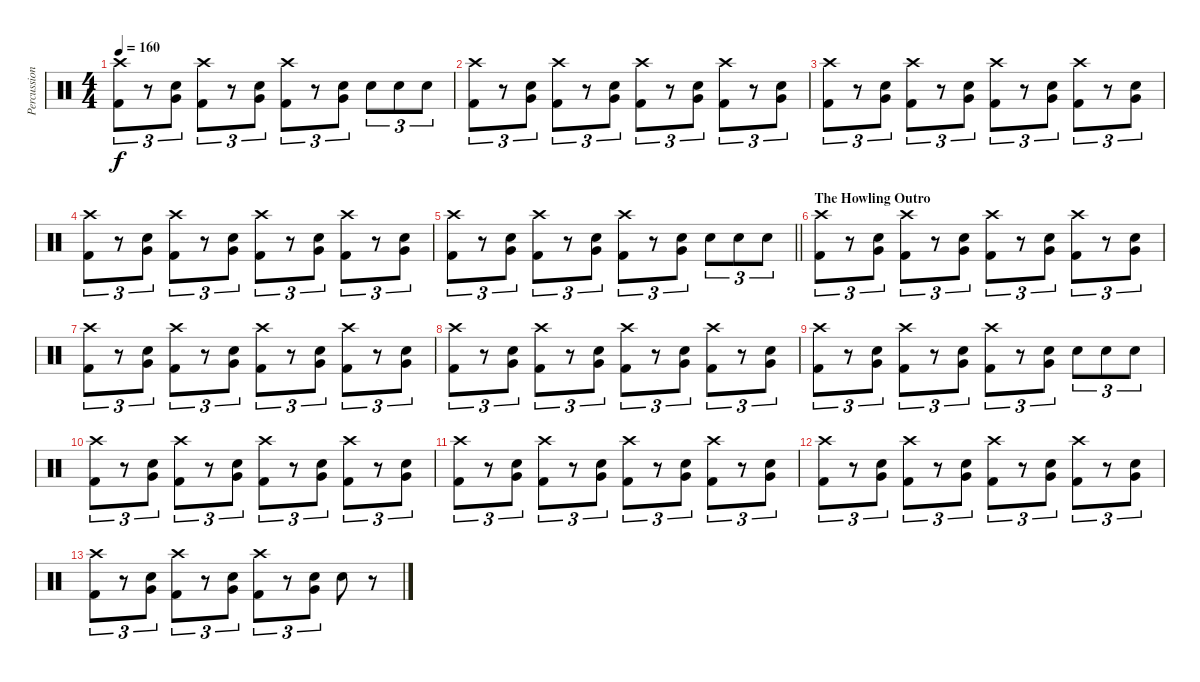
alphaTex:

\track ("Percussion" "Percussion") {instrument percussion}
\staff {score}
\articulation defaults
\ts (4 4)
\tempo 160
\clef neutral
\ks c
("Crash high (hit)" "Kick (hit) 2").8{tu (3 2) dy f} r.8{tu (3 2)} ("Snare (hit) 2" "Very Low Tom (hit)").8{tu (3 2)} ("Crash high (hit)" "Kick (hit) 2").8{tu (3 2)} r.8{tu (3 2)} ("Snare (hit) 2" "Very Low Tom (hit)").8{tu (3 2)} ("Crash high (hit)" "Kick (hit) 2").8{tu (3 2)} r.8{tu (3 2)} ("Snare (hit) 2" "Very Low Tom (hit)").8{tu (3 2)} "Snare (hit) 2".8{tu (3 2)} "Snare (hit) 2".8{tu (3 2)} "Snare (hit) 2".8{tu (3 2)} |
("Crash high (hit)" "Kick (hit) 2").8{tu (3 2)} r.8{tu (3 2)} ("Snare (hit) 2" "Very Low Tom (hit)").8{tu (3 2)} ("Crash high (hit)" "Kick (hit) 2").8{tu (3 2)} r.8{tu (3 2)} ("Snare (hit) 2" "Very Low Tom (hit)").8{tu (3 2)} ("Crash high (hit)" "Kick (hit) 2").8{tu (3 2)} r.8{tu (3 2)} ("Snare (hit) 2" "Very Low Tom (hit)").8{tu (3 2)} ("Crash high (hit)" "Kick (hit) 2").8{tu (3 2)} r.8{tu (3 2)} ("Snare (hit) 2" "Very Low Tom (hit)").8{tu (3 2)} |
("Crash high (hit)" "Kick (hit) 2").8{tu (3 2)} r.8{tu (3 2)} ("Snare (hit) 2" "Very Low Tom (hit)").8{tu (3 2)} ("Crash high (hit)" "Kick (hit) 2").8{tu (3 2)} r.8{tu (3 2)} ("Snare (hit) 2" "Very Low Tom (hit)").8{tu (3 2)} ("Crash high (hit)" "Kick (hit) 2").8{tu (3 2)} r.8{tu (3 2)} ("Snare (hit) 2" "Very Low Tom (hit)").8{tu (3 2)} ("Crash high (hit)" "Kick (hit) 2").8{tu (3 2)} r.8{tu (3 2)} ("Snare (hit) 2" "Very Low Tom (hit)").8{tu (3 2)} |
("Crash high (hit)" "Kick (hit) 2").8{tu (3 2)} r.8{tu (3 2)} ("Snare (hit) 2" "Very Low Tom (hit)").8{tu (3 2)} ("Crash high (hit)" "Kick (hit) 2").8{tu (3 2)} r.8{tu (3 2)} ("Snare (hit) 2" "Very Low Tom (hit)").8{tu (3 2)} ("Crash high (hit)" "Kick (hit) 2").8{tu (3 2)} r.8{tu (3 2)} ("Snare (hit) 2" "Very Low Tom (hit)").8{tu (3 2)} ("Crash high (hit)" "Kick (hit) 2").8{tu (3 2)} r.8{tu (3 2)} ("Snare (hit) 2" "Very Low Tom (hit)").8{tu (3 2)} |
\barLineRight lightlight
("Crash high (hit)" "Kick (hit) 2").8{tu (3 2)} r.8{tu (3 2)} ("Snare (hit) 2" "Very Low Tom (hit)").8{tu (3 2)} ("Crash high (hit)" "Kick (hit) 2").8{tu (3 2)} r.8{tu (3 2)} ("Snare (hit) 2" "Very Low Tom (hit)").8{tu (3 2)} ("Crash high (hit)" "Kick (hit) 2").8{tu (3 2)} r.8{tu (3 2)} ("Snare (hit) 2" "Very Low Tom (hit)").8{tu (3 2)} "Snare (hit) 2".8{tu (3 2)} "Snare (hit) 2".8{tu (3 2)} "Snare (hit) 2".8{tu (3 2)} |
\section ("" "The Howling Outro")
("Crash high (hit)" "Kick (hit) 2").8{tu (3 2)} r.8{tu (3 2)} ("Snare (hit) 2" "Very Low Tom (hit)").8{tu (3 2)} ("Crash high (hit)" "Kick (hit) 2").8{tu (3 2)} r.8{tu (3 2)} ("Snare (hit) 2" "Very Low Tom (hit)").8{tu (3 2)} ("Crash high (hit)" "Kick (hit) 2").8{tu (3 2)} r.8{tu (3 2)} ("Snare (hit) 2" "Very Low Tom (hit)").8{tu (3 2)} ("Crash high (hit)" "Kick (hit) 2").8{tu (3 2)} r.8{tu (3 2)} ("Snare (hit) 2" "Very Low Tom (hit)").8{tu (3 2)} |
("Crash high (hit)" "Kick (hit) 2").8{tu (3 2)} r.8{tu (3 2)} ("Snare (hit) 2" "Very Low Tom (hit)").8{tu (3 2)} ("Crash high (hit)" "Kick (hit) 2").8{tu (3 2)} r.8{tu (3 2)} ("Snare (hit) 2" "Very Low Tom (hit)").8{tu (3 2)} ("Crash high (hit)" "Kick (hit) 2").8{tu (3 2)} r.8{tu (3 2)} ("Snare (hit) 2" "Very Low Tom (hit)").8{tu (3 2)} ("Crash high (hit)" "Kick (hit) 2").8{tu (3 2)} r.8{tu (3 2)} ("Snare (hit) 2" "Very Low Tom (hit)").8{tu (3 2)} |
("Crash high (hit)" "Kick (hit) 2").8{tu (3 2)} r.8{tu (3 2)} ("Snare (hit) 2" "Very Low Tom (hit)").8{tu (3 2)} ("Crash high (hit)" "Kick (hit) 2").8{tu (3 2)} r.8{tu (3 2)} ("Snare (hit) 2" "Very Low Tom (hit)").8{tu (3 2)} ("Crash high (hit)" "Kick (hit) 2").8{tu (3 2)} r.8{tu (3 2)} ("Snare (hit) 2" "Very Low Tom (hit)").8{tu (3 2)} ("Crash high (hit)" "Kick (hit) 2").8{tu (3 2)} r.8{tu (3 2)} ("Snare (hit) 2" "Very Low Tom (hit)").8{tu (3 2)} |
("Crash high (hit)" "Kick (hit) 2").8{tu (3 2)} r.8{tu (3 2)} ("Snare (hit) 2" "Very Low Tom (hit)").8{tu (3 2)} ("Crash high (hit)" "Kick (hit) 2").8{tu (3 2)} r.8{tu (3 2)} ("Snare (hit) 2" "Very Low Tom (hit)").8{tu (3 2)} ("Crash high (hit)" "Kick (hit) 2").8{tu (3 2)} r.8{tu (3 2)} ("Snare (hit) 2" "Very Low Tom (hit)").8{tu (3 2)} "Snare (hit) 2".8{tu (3 2)} "Snare (hit) 2".8{tu (3 2)} "Snare (hit) 2".8{tu (3 2)} |
("Crash high (hit)" "Kick (hit) 2").8{tu (3 2)} r.8{tu (3 2)} ("Snare (hit) 2" "Very Low Tom (hit)").8{tu (3 2)} ("Crash high (hit)" "Kick (hit) 2").8{tu (3 2)} r.8{tu (3 2)} ("Snare (hit) 2" "Very Low Tom (hit)").8{tu (3 2)} ("Crash high (hit)" "Kick (hit) 2").8{tu (3 2)} r.8{tu (3 2)} ("Snare (hit) 2" "Very Low Tom (hit)").8{tu (3 2)} ("Crash high (hit)" "Kick (hit) 2").8{tu (3 2)} r.8{tu (3 2)} ("Snare (hit) 2" "Very Low Tom (hit)").8{tu (3 2)} |
("Crash high (hit)" "Kick (hit) 2").8{tu (3 2)} r.8{tu (3 2)} ("Snare (hit) 2" "Very Low Tom (hit)").8{tu (3 2)} ("Crash high (hit)" "Kick (hit) 2").8{tu (3 2)} r.8{tu (3 2)} ("Snare (hit) 2" "Very Low Tom (hit)").8{tu (3 2)} ("Crash high (hit)" "Kick (hit) 2").8{tu (3 2)} r.8{tu (3 2)} ("Snare (hit) 2" "Very Low Tom (hit)").8{tu (3 2)} ("Crash high (hit)" "Kick (hit) 2").8{tu (3 2)} r.8{tu (3 2)} ("Snare (hit) 2" "Very Low Tom (hit)").8{tu (3 2)} |
("Crash high (hit)" "Kick (hit) 2").8{tu (3 2)} r.8{tu (3 2)} ("Snare (hit) 2" "Very Low Tom (hit)").8{tu (3 2)} ("Crash high (hit)" "Kick (hit) 2").8{tu (3 2)} r.8{tu (3 2)} ("Snare (hit) 2" "Very Low Tom (hit)").8{tu (3 2)} ("Crash high (hit)" "Kick (hit) 2").8{tu (3 2)} r.8{tu (3 2)} ("Snare (hit) 2" "Very Low Tom (hit)").8{tu (3 2)} ("Crash high (hit)" "Kick (hit) 2").8{tu (3 2)} r.8{tu (3 2)} ("Snare (hit) 2" "Very Low Tom (hit)").8{tu (3 2)} |
("Crash high (hit)" "Kick (hit) 2").8{tu (3 2)} r.8{tu (3 2)} ("Snare (hit) 2" "Very Low Tom (hit)").8{tu (3 2)} ("Crash high (hit)" "Kick (hit) 2").8{tu (3 2)} r.8{tu (3 2)} ("Snare (hit) 2" "Very Low Tom (hit)").8{tu (3 2)} ("Crash high (hit)" "Kick (hit) 2").8{tu (3 2)} r.8{tu (3 2)} ("Snare (hit) 2" "Very Low Tom (hit)").8{tu (3 2)} "Snare (hit) 2".8 r.8
